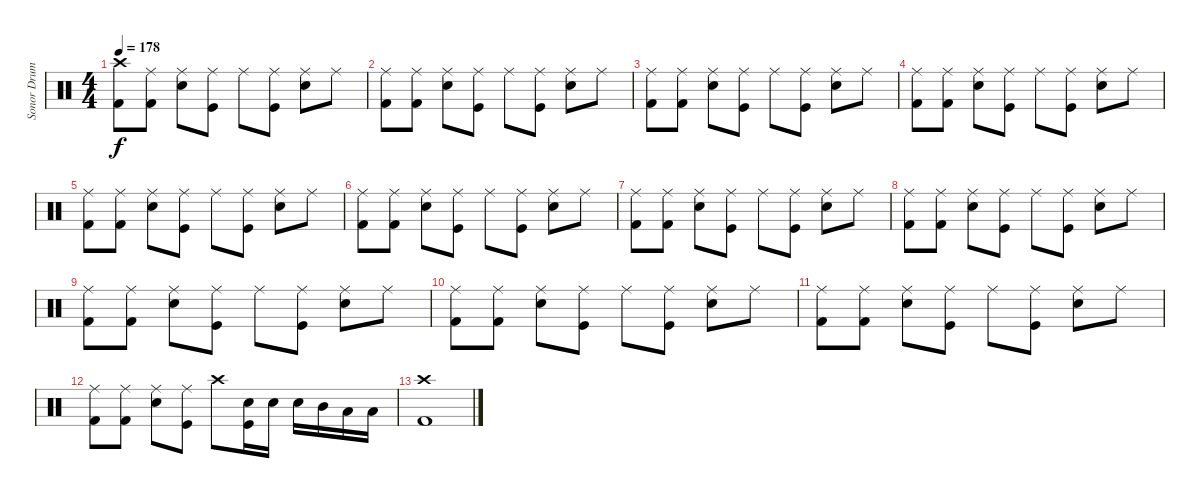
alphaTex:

\track ("Sonor Drum Kit " "Sonor Drum") {instrument percussion}
\staff {score}
\articulation defaults
\ts (4 4)
\tempo 178
\clef neutral
\ks c
("Crash high (hit)" "Kick (hit) 2").8{dy f} ("Ride (middle)" "Kick (hit) 2").8 ("Ride (middle)" "Electric Snare (hit)").8 ("Ride (middle)" "Kick (hit)").8 "Ride (middle)".8 ("Ride (middle)" "Kick (hit)").8 ("Ride (middle)" "Electric Snare (hit)").8 "Ride (middle)".8 |
("Ride (middle)" "Kick (hit) 2").8 ("Ride (middle)" "Kick (hit) 2").8 ("Ride (middle)" "Electric Snare (hit)").8 ("Ride (middle)" "Kick (hit)").8 "Ride (middle)".8 ("Ride (middle)" "Kick (hit)").8 ("Ride (middle)" "Electric Snare (hit)").8 "Ride (middle)".8 |
("Ride (middle)" "Kick (hit) 2").8 ("Ride (middle)" "Kick (hit) 2").8 ("Ride (middle)" "Electric Snare (hit)").8 ("Ride (middle)" "Kick (hit)").8 "Ride (middle)".8 ("Ride (middle)" "Kick (hit)").8 ("Ride (middle)" "Electric Snare (hit)").8 "Ride (middle)".8 |
("Ride (middle)" "Kick (hit) 2").8 ("Ride (middle)" "Kick (hit) 2").8 ("Ride (middle)" "Electric Snare (hit)").8 ("Ride (middle)" "Kick (hit)").8 "Ride (middle)".8 ("Ride (middle)" "Kick (hit)").8 ("Ride (middle)" "Electric Snare (hit)").8 "Ride (middle)".8 |
("Ride (middle)" "Kick (hit) 2").8 ("Ride (middle)" "Kick (hit) 2").8 ("Ride (middle)" "Electric Snare (hit)").8 ("Ride (middle)" "Kick (hit)").8 "Ride (middle)".8 ("Ride (middle)" "Kick (hit)").8 ("Ride (middle)" "Electric Snare (hit)").8 "Ride (middle)".8 |
("Ride (middle)" "Kick (hit) 2").8 ("Ride (middle)" "Kick (hit) 2").8 ("Ride (middle)" "Electric Snare (hit)").8 ("Ride (middle)" "Kick (hit)").8 "Ride (middle)".8 ("Ride (middle)" "Kick (hit)").8 ("Ride (middle)" "Electric Snare (hit)").8 "Ride (middle)".8 |
("Ride (middle)" "Kick (hit) 2").8 ("Ride (middle)" "Kick (hit) 2").8 ("Ride (middle)" "Electric Snare (hit)").8 ("Ride (middle)" "Kick (hit)").8 "Ride (middle)".8 ("Ride (middle)" "Kick (hit)").8 ("Ride (middle)" "Electric Snare (hit)").8 "Ride (middle)".8 |
("Ride (middle)" "Kick (hit) 2").8 ("Ride (middle)" "Kick (hit) 2").8 ("Ride (middle)" "Electric Snare (hit)").8 ("Ride (middle)" "Kick (hit)").8 "Ride (middle)".8 ("Ride (middle)" "Kick (hit)").8 ("Ride (middle)" "Electric Snare (hit)").8 "Ride (middle)".8 |
("Ride (middle)" "Kick (hit) 2").8 ("Ride (middle)" "Kick (hit) 2").8 ("Ride (middle)" "Electric Snare (hit)").8 ("Ride (middle)" "Kick (hit)").8 "Ride (middle)".8 ("Ride (middle)" "Kick (hit)").8 ("Ride (middle)" "Electric Snare (hit)").8 "Ride (middle)".8 |
("Ride (middle)" "Kick (hit) 2").8 ("Ride (middle)" "Kick (hit) 2").8 ("Ride (middle)" "Electric Snare (hit)").8 ("Ride (middle)" "Kick (hit)").8 "Ride (middle)".8 ("Ride (middle)" "Kick (hit)").8 ("Ride (middle)" "Electric Snare (hit)").8 "Ride (middle)".8 |
("Ride (middle)" "Kick (hit) 2").8 ("Ride (middle)" "Kick (hit) 2").8 ("Ride (middle)" "Electric Snare (hit)").8 ("Ride (middle)" "Kick (hit)").8 "Ride (middle)".8 ("Ride (middle)" "Kick (hit)").8 ("Ride (middle)" "Electric Snare (hit)").8 "Ride (middle)".8 |
("Ride (middle)" "Kick (hit) 2").8 ("Ride (middle)" "Kick (hit) 2").8 ("Ride (middle)" "Electric Snare (hit)").8 ("Ride (middle)" "Kick (hit)").8 "Crash high (hit)".8 ("Electric Snare (hit)" "Kick (hit)").16 "Electric Snare (hit)".16 "Electric Snare (hit)".16 "Mid Tom (hit)".16 "Low Tom (hit)".16 "Low Floor Tom (hit)".16 |
("Crash high (hit)" "Kick (hit) 2").1
